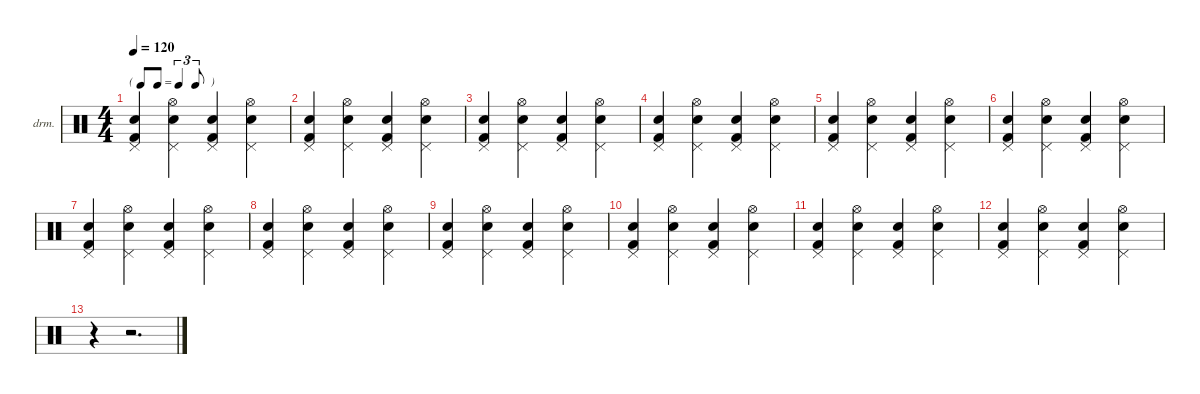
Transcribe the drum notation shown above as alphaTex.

\defaultSystemsLayout 4
\hideDynamics
\bracketExtendMode nobrackets
\firstSystemTrackNameOrientation horizontal
\otherSystemsTrackNameOrientation horizontal
\track ("Percussions" "drm.") {instrument percussion}
\staff {score}
\articulation defaults
\ts (4 4)
\tf triplet8th
\tempo 120
\clef neutral
\ks c
("Kick (hit) 2" "Snare (hit) 2" "Pedal Hi-Hat (hit)").4{dy f beam Up} ("Hi-Hat (open)" "Snare (hit) 2" "Pedal Hi-Hat (hit)").4{beam Down} ("Kick (hit) 2" "Snare (hit) 2" "Pedal Hi-Hat (hit)").4{beam Up} ("Hi-Hat (open)" "Snare (hit) 2" "Pedal Hi-Hat (hit)").4{beam Down} |
("Kick (hit) 2" "Snare (hit) 2" "Pedal Hi-Hat (hit)").4{beam Up} ("Hi-Hat (open)" "Snare (hit) 2" "Pedal Hi-Hat (hit)").4{beam Down} ("Kick (hit) 2" "Snare (hit) 2" "Pedal Hi-Hat (hit)").4{beam Up} ("Hi-Hat (open)" "Snare (hit) 2" "Pedal Hi-Hat (hit)").4{beam Down} |
("Kick (hit) 2" "Snare (hit) 2" "Pedal Hi-Hat (hit)").4{beam Up} ("Hi-Hat (open)" "Snare (hit) 2" "Pedal Hi-Hat (hit)").4{beam Down} ("Kick (hit) 2" "Snare (hit) 2" "Pedal Hi-Hat (hit)").4{beam Up} ("Hi-Hat (open)" "Snare (hit) 2" "Pedal Hi-Hat (hit)").4{beam Down} |
("Kick (hit) 2" "Snare (hit) 2" "Pedal Hi-Hat (hit)").4{beam Up} ("Hi-Hat (open)" "Snare (hit) 2" "Pedal Hi-Hat (hit)").4{beam Down} ("Kick (hit) 2" "Snare (hit) 2" "Pedal Hi-Hat (hit)").4{beam Up} ("Hi-Hat (open)" "Snare (hit) 2" "Pedal Hi-Hat (hit)").4{beam Down} |
("Kick (hit) 2" "Snare (hit) 2" "Pedal Hi-Hat (hit)").4{beam Up} ("Hi-Hat (open)" "Snare (hit) 2" "Pedal Hi-Hat (hit)").4{beam Down} ("Kick (hit) 2" "Snare (hit) 2" "Pedal Hi-Hat (hit)").4{beam Up} ("Hi-Hat (open)" "Snare (hit) 2" "Pedal Hi-Hat (hit)").4{beam Down} |
("Kick (hit) 2" "Snare (hit) 2" "Pedal Hi-Hat (hit)").4{beam Up} ("Hi-Hat (open)" "Snare (hit) 2" "Pedal Hi-Hat (hit)").4{beam Down} ("Kick (hit) 2" "Snare (hit) 2" "Pedal Hi-Hat (hit)").4{beam Up} ("Hi-Hat (open)" "Snare (hit) 2" "Pedal Hi-Hat (hit)").4{beam Down} |
("Kick (hit) 2" "Snare (hit) 2" "Pedal Hi-Hat (hit)").4{beam Up} ("Hi-Hat (open)" "Snare (hit) 2" "Pedal Hi-Hat (hit)").4{beam Down} ("Kick (hit) 2" "Snare (hit) 2" "Pedal Hi-Hat (hit)").4{beam Up} ("Hi-Hat (open)" "Snare (hit) 2" "Pedal Hi-Hat (hit)").4{beam Down} |
("Kick (hit) 2" "Snare (hit) 2" "Pedal Hi-Hat (hit)").4{beam Up} ("Hi-Hat (open)" "Snare (hit) 2" "Pedal Hi-Hat (hit)").4{beam Down} ("Kick (hit) 2" "Snare (hit) 2" "Pedal Hi-Hat (hit)").4{beam Up} ("Hi-Hat (open)" "Snare (hit) 2" "Pedal Hi-Hat (hit)").4{beam Down} |
("Kick (hit) 2" "Snare (hit) 2" "Pedal Hi-Hat (hit)").4{beam Up} ("Hi-Hat (open)" "Snare (hit) 2" "Pedal Hi-Hat (hit)").4{beam Down} ("Kick (hit) 2" "Snare (hit) 2" "Pedal Hi-Hat (hit)").4{beam Up} ("Hi-Hat (open)" "Snare (hit) 2" "Pedal Hi-Hat (hit)").4{beam Down} |
("Kick (hit) 2" "Snare (hit) 2" "Pedal Hi-Hat (hit)").4{beam Up} ("Hi-Hat (open)" "Snare (hit) 2" "Pedal Hi-Hat (hit)").4{beam Down} ("Kick (hit) 2" "Snare (hit) 2" "Pedal Hi-Hat (hit)").4{beam Up} ("Hi-Hat (open)" "Snare (hit) 2" "Pedal Hi-Hat (hit)").4{beam Down} |
("Kick (hit) 2" "Snare (hit) 2" "Pedal Hi-Hat (hit)").4{beam Up} ("Hi-Hat (open)" "Snare (hit) 2" "Pedal Hi-Hat (hit)").4{beam Down} ("Kick (hit) 2" "Snare (hit) 2" "Pedal Hi-Hat (hit)").4{beam Up} ("Hi-Hat (open)" "Snare (hit) 2" "Pedal Hi-Hat (hit)").4{beam Down} |
("Kick (hit) 2" "Snare (hit) 2" "Pedal Hi-Hat (hit)").4{beam Up} ("Hi-Hat (open)" "Snare (hit) 2" "Pedal Hi-Hat (hit)").4{beam Down} ("Kick (hit) 2" "Snare (hit) 2" "Pedal Hi-Hat (hit)").4{beam Up} ("Hi-Hat (open)" "Snare (hit) 2" "Pedal Hi-Hat (hit)").4{beam Down} |
r.4{beam Down} r.2{d beam Down}
